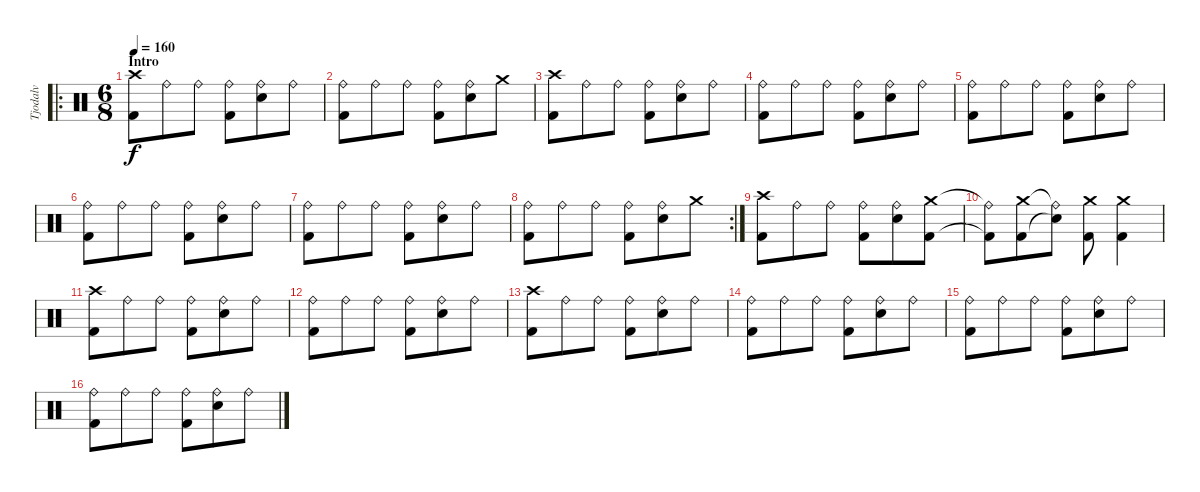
\track ("Tjodalv" "Tjodalv") {instrument percussion}
\staff {score}
\articulation defaults
\ro
\ts (6 8)
\section ("" "Intro")
\tempo 160
\clef neutral
\ks c
("Crash high (hit)" "Kick (hit) 2").8{dy f} "Ride (bell)".8 "Ride (bell)".8 ("Ride (bell)" "Kick (hit) 2").8 ("Ride (bell)" "Snare (hit) 2").8 "Ride (bell)".8 |
("Ride (bell)" "Kick (hit) 2").8 "Ride (bell)".8 "Ride (bell)".8 ("Ride (bell)" "Kick (hit) 2").8 ("Ride (bell)" "Snare (hit) 2").8 "Crash medium (hit)".8 |
("Crash high (hit)" "Kick (hit) 2").8 "Ride (bell)".8 "Ride (bell)".8 ("Ride (bell)" "Kick (hit) 2").8 ("Ride (bell)" "Snare (hit) 2").8 "Ride (bell)".8 |
("Ride (bell)" "Kick (hit) 2").8 "Ride (bell)".8 "Ride (bell)".8 ("Ride (bell)" "Kick (hit) 2").8 ("Ride (bell)" "Snare (hit) 2").8 "Ride (bell)".8 |
("Ride (bell)" "Kick (hit) 2").8 "Ride (bell)".8 "Ride (bell)".8 ("Ride (bell)" "Kick (hit) 2").8 ("Ride (bell)" "Snare (hit) 2").8 "Ride (bell)".8 |
("Ride (bell)" "Kick (hit) 2").8 "Ride (bell)".8 "Ride (bell)".8 ("Ride (bell)" "Kick (hit) 2").8 ("Ride (bell)" "Snare (hit) 2").8 "Ride (bell)".8 |
("Ride (bell)" "Kick (hit) 2").8 "Ride (bell)".8 "Ride (bell)".8 ("Ride (bell)" "Kick (hit) 2").8 ("Ride (bell)" "Snare (hit) 2").8 "Ride (bell)".8 |
\rc 2
("Ride (bell)" "Kick (hit) 2").8 "Ride (bell)".8 "Ride (bell)".8 ("Ride (bell)" "Kick (hit) 2").8 ("Ride (bell)" "Snare (hit) 2").8 "Crash medium (hit)".8 |
("Crash high (hit)" "Kick (hit) 2").8 "Ride (bell)".8 "Ride (bell)".8 ("Ride (bell)" "Kick (hit) 2").8 ("Ride (bell)" "Snare (hit) 2").8 ("Crash medium (hit)" "Kick (hit) 2").8 |
("Ride (bell)"{t} "Kick (hit) 2"{t}).8 ("Crash medium (hit)" "Kick (hit) 2").8 ("Ride (bell)"{t} "Snare (hit)"{t}).8 ("Crash medium (hit)" "Kick (hit) 2").8 ("Crash medium (hit)" "Kick (hit) 2").4 |
("Crash high (hit)" "Kick (hit) 2").8 "Ride (bell)".8 "Ride (bell)".8 ("Ride (bell)" "Kick (hit) 2").8 ("Ride (bell)" "Snare (hit) 2").8 "Ride (bell)".8 |
("Ride (bell)" "Kick (hit) 2").8 "Ride (bell)".8 "Ride (bell)".8 ("Ride (bell)" "Kick (hit) 2").8 ("Ride (bell)" "Snare (hit) 2").8 "Ride (bell)".8 |
("Crash high (hit)" "Kick (hit) 2").8 "Ride (bell)".8 "Ride (bell)".8 ("Ride (bell)" "Kick (hit) 2").8 ("Ride (bell)" "Snare (hit) 2").8 "Ride (bell)".8 |
("Ride (bell)" "Kick (hit) 2").8 "Ride (bell)".8 "Ride (bell)".8 ("Ride (bell)" "Kick (hit) 2").8 ("Ride (bell)" "Snare (hit) 2").8 "Ride (bell)".8 |
("Ride (bell)" "Kick (hit) 2").8 "Ride (bell)".8 "Ride (bell)".8 ("Ride (bell)" "Kick (hit) 2").8 ("Ride (bell)" "Snare (hit) 2").8 "Ride (bell)".8 |
("Ride (bell)" "Kick (hit) 2").8 "Ride (bell)".8 "Ride (bell)".8 ("Ride (bell)" "Kick (hit) 2").8 ("Ride (bell)" "Snare (hit) 2").8 "Ride (bell)".8
